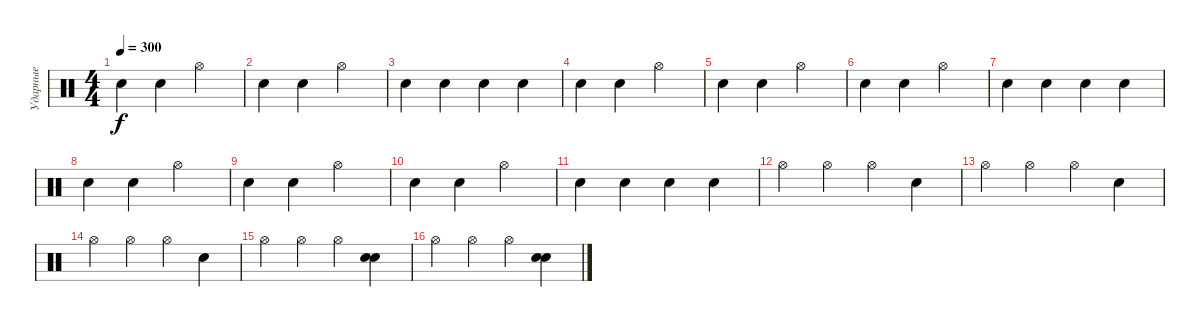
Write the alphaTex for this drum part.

\track ("Ударные" "Ударные") {instrument percussion}
\staff {score}
\articulation defaults
\ts (4 4)
\tempo 300
\clef neutral
\ks c "Electric Snare (hit)".4{dy f} "Electric Snare (hit)".4 "Hi-Hat (open)".2
|
"Electric Snare (hit)".4 "Electric Snare (hit)".4 "Hi-Hat (open)".2 |
"Electric Snare (hit)".4 "Electric Snare (hit)".4 "Electric Snare (hit)".4 "Electric Snare (hit)".4 |
"Electric Snare (hit)".4 "Electric Snare (hit)".4 "Hi-Hat (open)".2 |
"Electric Snare (hit)".4 "Electric Snare (hit)".4 "Hi-Hat (open)".2 |
"Electric Snare (hit)".4 "Electric Snare (hit)".4 "Hi-Hat (open)".2 |
"Electric Snare (hit)".4 "Electric Snare (hit)".4 "Electric Snare (hit)".4 "Electric Snare (hit)".4 |
"Electric Snare (hit)".4 "Electric Snare (hit)".4 "Hi-Hat (open)".2 |
"Electric Snare (hit)".4 "Electric Snare (hit)".4 "Hi-Hat (open)".2 |
"Electric Snare (hit)".4 "Electric Snare (hit)".4 "Hi-Hat (open)".2 |
"Electric Snare (hit)".4 "Electric Snare (hit)".4 "Electric Snare (hit)".4 "Electric Snare (hit)".4 |
"Hi-Hat (open)".4 "Hi-Hat (open)".4 "Hi-Hat (open)".4 "Electric Snare (hit)".4 |
"Hi-Hat (open)".4 "Hi-Hat (open)".4 "Hi-Hat (open)".4 "Electric Snare (hit)".4 |
"Hi-Hat (open)".4 "Hi-Hat (open)".4 "Hi-Hat (open)".4 "Electric Snare (hit)".4 |
"Hi-Hat (open)".4 "Hi-Hat (open)".4 "Hi-Hat (open)".4 ("Electric Snare (hit)" "Electric Snare (hit)").4 |
"Hi-Hat (open)".4 "Hi-Hat (open)".4 "Hi-Hat (open)".4 ("Electric Snare (hit)" "Electric Snare (hit)").4
